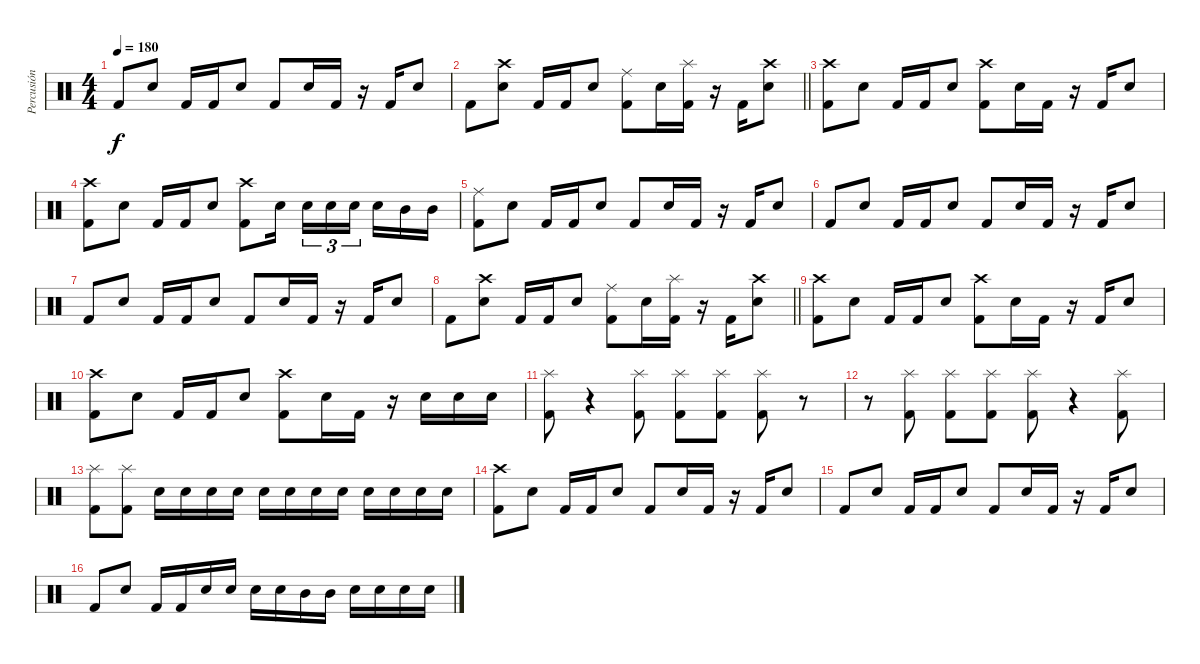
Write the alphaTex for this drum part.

\track ("Percusión" "Percusión") {instrument percussion}
\staff {score}
\articulation defaults
\ts (4 4)
\tempo 180
\clef neutral
\ks c "Kick (hit) 2".8{dy f} "Snare (hit) 2".8 "Kick (hit) 2".16 "Kick (hit) 2".16 "Snare (hit) 2".8 "Kick (hit) 2".8 "Snare (hit) 2".16 "Kick (hit) 2".16
r.16 "Kick (hit) 2".16 "Snare (hit) 2".8 |
\barLineRight lightlight "Kick (hit) 2".8
("Snare (hit) 2" "Crash high (hit)").8 "Kick (hit) 2".16 "Kick (hit) 2".16 "Snare (hit) 2".8 ("Ride (middle)" "Kick (hit) 2").8 "Snare (hit) 2".16 ("Splash (hit)" "Kick (hit) 2").16 r.16 "Kick (hit) 2".16 ("Snare (hit) 2" "Crash high (hit)").8 |
("Crash high (hit)" "Kick (hit) 2").8 "Snare (hit) 2".8 "Kick (hit) 2".16 "Kick (hit) 2".16 "Snare (hit) 2".8 ("Crash high (hit)" "Kick (hit) 2").8 "Snare (hit) 2".16 "Kick (hit) 2".16 r.16 "Kick (hit) 2".16 "Snare (hit) 2".8 |
("Crash high (hit)" "Kick (hit) 2").8 "Snare (hit) 2".8 "Kick (hit) 2".16 "Kick (hit) 2".16 "Snare (hit) 2".8 ("Crash high (hit)" "Kick (hit) 2").8 "Snare (hit) 2".16{beam splitsecondary} "Snare (hit) 2".16{tu (3 2)} "Snare (hit) 2".16{tu (3 2)} "Snare (hit) 2".16{tu (3 2) beam splitsecondary} "Snare (hit) 2".16 "Mid Tom (hit)".16 "Mid Tom (hit)".16 |
("Ride (middle)" "Kick (hit) 2").8 "Snare (hit) 2".8 "Kick (hit) 2".16 "Kick (hit) 2".16 "Snare (hit) 2".8 "Kick (hit) 2".8 "Snare (hit) 2".16 "Kick (hit) 2".16 r.16 "Kick (hit) 2".16 "Snare (hit) 2".8 |
"Kick (hit) 2".8 "Snare (hit) 2".8 "Kick (hit) 2".16 "Kick (hit) 2".16 "Snare (hit) 2".8 "Kick (hit) 2".8 "Snare (hit) 2".16 "Kick (hit) 2".16 r.16 "Kick (hit) 2".16 "Snare (hit) 2".8 |
"Kick (hit) 2".8 "Snare (hit) 2".8 "Kick (hit) 2".16 "Kick (hit) 2".16 "Snare (hit) 2".8 "Kick (hit) 2".8 "Snare (hit) 2".16 "Kick (hit) 2".16 r.16 "Kick (hit) 2".16 "Snare (hit) 2".8 |
\barLineRight lightlight "Kick (hit) 2".8
("Snare (hit) 2" "Crash high (hit)").8 "Kick (hit) 2".16 "Kick (hit) 2".16 "Snare (hit) 2".8 ("Ride (middle)" "Kick (hit) 2").8 "Snare (hit) 2".16 ("Splash (hit)" "Kick (hit) 2").16 r.16 "Kick (hit) 2".16 ("Snare (hit) 2" "Crash high (hit)").8 |
("Crash high (hit)" "Kick (hit) 2").8 "Snare (hit) 2".8 "Kick (hit) 2".16 "Kick (hit) 2".16 "Snare (hit) 2".8 ("Crash high (hit)" "Kick (hit) 2").8 "Snare (hit) 2".16 "Kick (hit) 2".16 r.16 "Kick (hit) 2".16 "Snare (hit) 2".8 |
("Crash high (hit)" "Kick (hit) 2").8 "Snare (hit) 2".8 "Kick (hit) 2".16 "Kick (hit) 2".16 "Snare (hit) 2".8 ("Crash high (hit)" "Kick (hit) 2").8 "Snare (hit) 2".16 "Kick (hit) 2".16 r.16 "Snare (hit) 2".16 "Snare (hit) 2".16 "Snare (hit) 2".16 |
("Kick (hit) 2" "Splash (hit)").8 r.4 ("Kick (hit) 2" "Splash (hit)").8 ("Kick (hit) 2" "Splash (hit)").8 ("Kick (hit) 2" "Splash (hit)").8 ("Kick (hit) 2" "Splash (hit)").8 r.8 |
r.8 ("Kick (hit) 2" "Splash (hit)").8 ("Kick (hit) 2" "Splash (hit)").8 ("Kick (hit) 2" "Splash (hit)").8 ("Kick (hit) 2" "Splash (hit)").8 r.4 ("Kick (hit) 2" "Splash (hit)").8 |
("Kick (hit) 2" "Splash (hit)").8 ("Kick (hit) 2" "Splash (hit)").8 "Snare (hit) 2".16 "Snare (hit) 2".16 "Snare (hit) 2".16 "Snare (hit) 2".16 "Snare (hit) 2".16 "Snare (hit) 2".16 "Snare (hit) 2".16 "Snare (hit) 2".16 "Snare (hit) 2".16 "Snare (hit) 2".16 "Snare (hit) 2".16 "Snare (hit) 2".16 |
("Crash high (hit)" "Kick (hit) 2").8 "Snare (hit) 2".8 "Kick (hit) 2".16 "Kick (hit) 2".16 "Snare (hit) 2".8 "Kick (hit) 2".8 "Snare (hit) 2".16 "Kick (hit) 2".16 r.16 "Kick (hit) 2".16 "Snare (hit) 2".8 |
"Kick (hit) 2".8 "Snare (hit) 2".8 "Kick (hit) 2".16 "Kick (hit) 2".16 "Snare (hit) 2".8 "Kick (hit) 2".8 "Snare (hit) 2".16 "Kick (hit) 2".16 r.16 "Kick (hit) 2".16 "Snare (hit) 2".8 |
"Kick (hit) 2".8 "Snare (hit) 2".8 "Kick (hit) 2".16 "Kick (hit) 2".16 "Snare (hit) 2".16 "Snare (hit) 2".16 "Snare (hit) 2".16 "Snare (hit) 2".16 "Mid Tom (hit)".16 "Mid Tom (hit)".16 "Snare (hit) 2".16 "Snare (hit) 2".16 "Snare (hit) 2".16 "Snare (hit) 2".16
